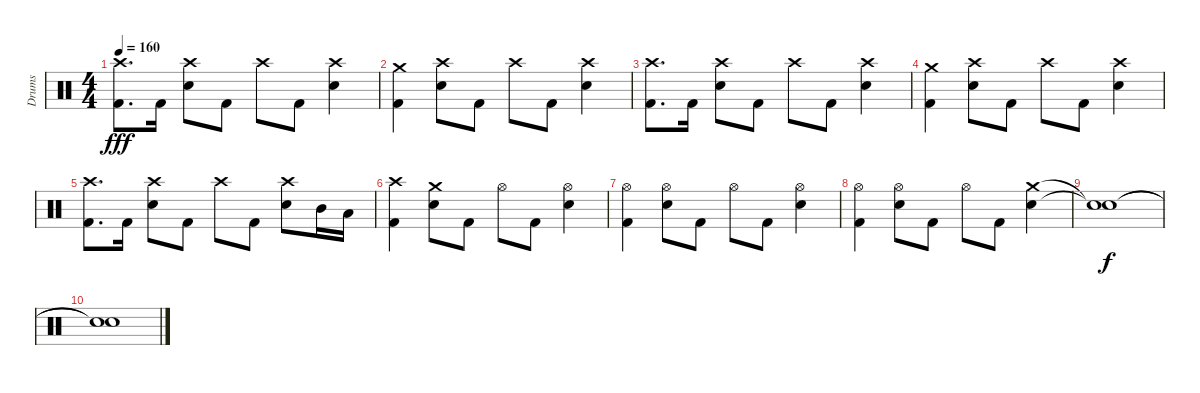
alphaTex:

\track ("Drums" "Drums") {instrument percussion}
\staff {score}
\articulation defaults
\ts (4 4)
\tempo 160
\clef neutral
\ks c
("Crash high (hit)" "Kick (hit) 2").8{d dy fff} "Kick (hit) 2".16 ("Crash high (hit)" "Snare (hit) 2").8 "Kick (hit) 2".8 "Crash high (hit)".8 "Kick (hit) 2".8 ("Crash high (hit)" "Snare (hit) 2").4 |
("Crash medium (hit)" "Kick (hit) 2").4 ("Crash high (hit)" "Snare (hit) 2").8 "Kick (hit) 2".8 "Crash high (hit)".8 "Kick (hit) 2".8 ("Crash high (hit)" "Snare (hit) 2").4 |
("Crash high (hit)" "Kick (hit) 2").8{d} "Kick (hit) 2".16 ("Crash high (hit)" "Snare (hit) 2").8 "Kick (hit) 2".8 "Crash high (hit)".8 "Kick (hit) 2".8 ("Crash high (hit)" "Snare (hit) 2").4 |
("Crash medium (hit)" "Kick (hit) 2").4 ("Crash high (hit)" "Snare (hit) 2").8 "Kick (hit) 2".8 "Crash high (hit)".8 "Kick (hit) 2".8 ("Crash high (hit)" "Snare (hit) 2").4 |
("Crash high (hit)" "Kick (hit) 2").8{d} "Kick (hit) 2".16 ("Crash high (hit)" "Snare (hit) 2").8 "Kick (hit) 2".8 "Crash high (hit)".8 "Kick (hit) 2".8 ("Crash high (hit)" "Snare (hit) 2").8 "Mid Tom (hit)".16 "Low Tom (hit)".16 |
("Crash high (hit)" "Kick (hit) 2").4 ("Crash medium (hit)" "Snare (hit) 2").8 "Kick (hit) 2".8 "Hi-Hat (open)".8 "Kick (hit) 2".8 ("Snare (hit) 2" "Hi-Hat (open)").4 |
("Hi-Hat (open)" "Kick (hit) 2").4 ("Snare (hit) 2" "Hi-Hat (open)").8 "Kick (hit) 2".8 "Hi-Hat (open)".8 "Kick (hit) 2".8 ("Snare (hit) 2" "Hi-Hat (open)").4 |
("Hi-Hat (open)" "Kick (hit) 2").4 ("Snare (hit) 2" "Hi-Hat (open)").8 "Kick (hit) 2".8 "Hi-Hat (open)".8 "Kick (hit) 2".8 ("Crash medium (hit)" "Snare (hit) 2").4 |
("Snare (hit)"{t} "Snare (hit)"{t}).1{dy f} |
("Snare (hit)"{t} "Snare (hit)"{t}).1
